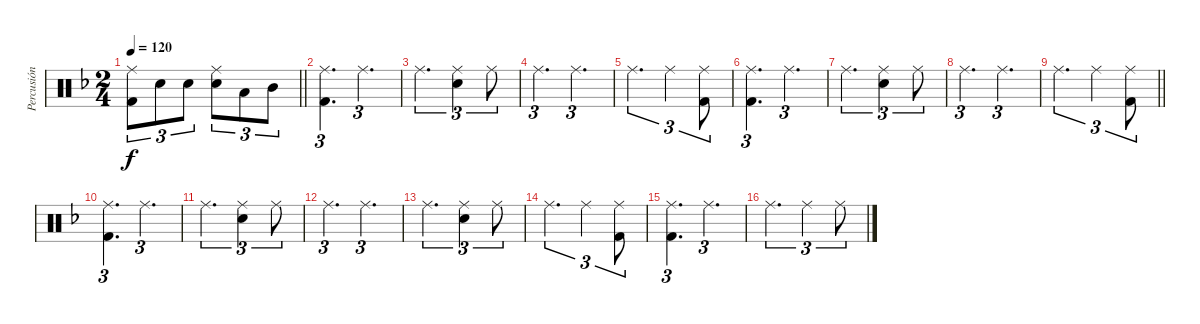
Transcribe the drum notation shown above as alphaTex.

\track ("Percusión" "Percusión") {instrument percussion}
\staff {score}
\articulation defaults
\ts (2 4)
\tempo 120
\clef neutral
\barLineRight lightlight
\ks dminor
("Ride (middle)" "Kick (hit) 2").8{tu (3 2) dy f} "Snare (hit) 2".8{tu (3 2)} "Snare (hit) 2".8{tu (3 2)} ("Ride (middle)" "Snare (hit) 2").8{tu (3 2)} "Low Tom (hit)".8{tu (3 2)} "Mid Tom (hit)".8{tu (3 2)} |
("Ride (middle)" "Kick (hit) 2").4{d tu (3 2)} "Ride (middle)".4{d tu (3 2)} |
"Ride (middle)".4{d tu (3 2)} ("Ride (middle)" "Snare (hit) 2").4{tu (3 2)} "Ride (middle)".8{tu (3 2)} |
"Ride (middle)".4{d tu (3 2)} "Ride (middle)".4{d tu (3 2)} |
"Ride (middle)".4{d tu (3 2)} "Ride (middle)".4{tu (3 2)} ("Ride (middle)" "Kick (hit) 2").8{tu (3 2)} |
("Ride (middle)" "Kick (hit) 2").4{d tu (3 2)} "Ride (middle)".4{d tu (3 2)} |
"Ride (middle)".4{d tu (3 2)} ("Ride (middle)" "Snare (hit) 2").4{tu (3 2)} "Ride (middle)".8{tu (3 2)} |
"Ride (middle)".4{d tu (3 2)} "Ride (middle)".4{d tu (3 2)} |
\barLineRight lightlight "Ride (middle)".4{d tu (3 2)} "Ride (middle)".4{tu (3 2)}
("Ride (middle)" "Kick (hit) 2").8{tu (3 2)} |
("Ride (middle)" "Kick (hit) 2").4{d tu (3 2)} "Ride (middle)".4{d tu (3 2)} |
"Ride (middle)".4{d tu (3 2)} ("Ride (middle)" "Snare (hit) 2").4{tu (3 2)} "Ride (middle)".8{tu (3 2)} |
"Ride (middle)".4{d tu (3 2)} "Ride (middle)".4{d tu (3 2)} |
"Ride (middle)".4{d tu (3 2)} ("Ride (middle)" "Snare (hit) 2").4{tu (3 2)} "Ride (middle)".8{tu (3 2)} |
"Ride (middle)".4{d tu (3 2)} "Ride (middle)".4{tu (3 2)} ("Ride (middle)" "Kick (hit) 2").8{tu (3 2)} |
("Ride (middle)" "Kick (hit) 2").4{d tu (3 2)} "Ride (middle)".4{d tu (3 2)} |
"Ride (middle)".4{d tu (3 2)} "Ride (middle)".4{tu (3 2)} "Ride (middle)".8{tu (3 2)}
